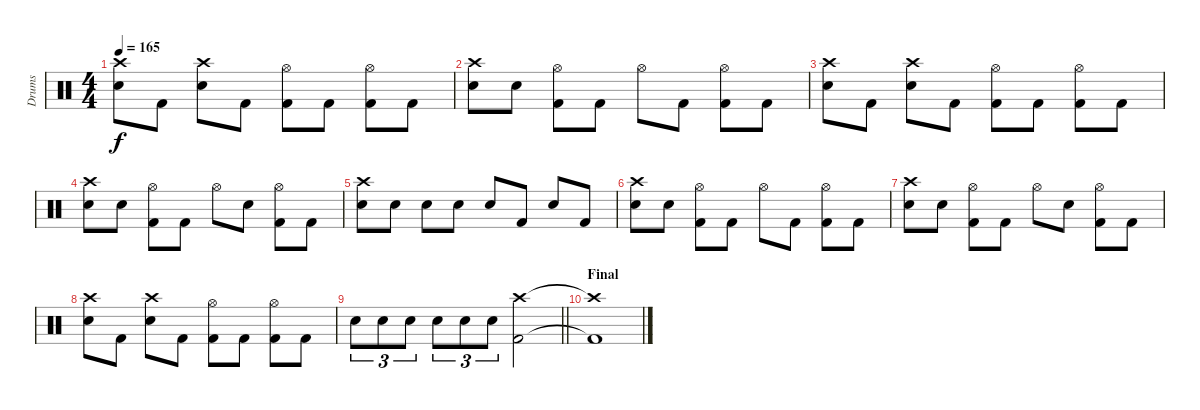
\track ("Drums" "Drums") {instrument percussion}
\staff {score}
\articulation defaults
\ts (4 4)
\tempo 165
\clef neutral
\ks c
("Crash high (hit)" "Electric Snare (hit)").8{dy f} "Kick (hit) 2".8 ("Crash high (hit)" "Electric Snare (hit)").8 "Kick (hit) 2".8 ("Hi-Hat (open)" "Kick (hit) 2").8 "Kick (hit) 2".8 ("Hi-Hat (open)" "Kick (hit) 2").8 "Kick (hit) 2".8 |
("Crash high (hit)" "Electric Snare (hit)").8 "Electric Snare (hit)".8 ("Hi-Hat (open)" "Kick (hit) 2").8 "Kick (hit) 2".8 "Hi-Hat (open)".8 "Kick (hit) 2".8 ("Hi-Hat (open)" "Kick (hit) 2").8 "Kick (hit) 2".8 |
("Crash high (hit)" "Electric Snare (hit)").8 "Kick (hit) 2".8 ("Crash high (hit)" "Electric Snare (hit)").8 "Kick (hit) 2".8 ("Hi-Hat (open)" "Kick (hit) 2").8 "Kick (hit) 2".8 ("Hi-Hat (open)" "Kick (hit) 2").8 "Kick (hit) 2".8 |
("Crash high (hit)" "Electric Snare (hit)").8 "Electric Snare (hit)".8 ("Hi-Hat (open)" "Kick (hit) 2").8 "Kick (hit) 2".8 "Hi-Hat (open)".8 "Electric Snare (hit)".8 ("Hi-Hat (open)" "Kick (hit) 2").8 "Kick (hit) 2".8 |
("Crash high (hit)" "Electric Snare (hit)").8 "Electric Snare (hit)".8 "Electric Snare (hit)".8 "Electric Snare (hit)".8 "Electric Snare (hit)".8 "Kick (hit) 2".8 "Electric Snare (hit)".8 "Kick (hit) 2".8 |
("Crash high (hit)" "Electric Snare (hit)").8 "Electric Snare (hit)".8 ("Hi-Hat (open)" "Kick (hit) 2").8 "Kick (hit) 2".8 "Hi-Hat (open)".8 "Kick (hit) 2".8 ("Hi-Hat (open)" "Kick (hit) 2").8 "Kick (hit) 2".8 |
("Crash high (hit)" "Electric Snare (hit)").8 "Electric Snare (hit)".8 ("Hi-Hat (open)" "Kick (hit) 2").8 "Kick (hit) 2".8 "Hi-Hat (open)".8 "Electric Snare (hit)".8 ("Hi-Hat (open)" "Kick (hit) 2").8 "Kick (hit) 2".8 |
("Crash high (hit)" "Electric Snare (hit)").8 "Kick (hit) 2".8 ("Crash high (hit)" "Electric Snare (hit)").8 "Kick (hit) 2".8 ("Hi-Hat (open)" "Kick (hit) 2").8 "Kick (hit) 2".8 ("Hi-Hat (open)" "Kick (hit) 2").8 "Kick (hit) 2".8 |
\barLineRight lightlight "Electric Snare (hit)".8{tu (3 2)} "Electric Snare (hit)".8{tu (3 2)} "Electric Snare (hit)".8{tu (3 2)} "Electric Snare (hit)".8{tu (3 2)} "Electric Snare (hit)".8{tu (3 2)} "Electric Snare (hit)".8{tu (3 2)}
("Crash high (hit)" "Kick (hit) 2").2 |
\section ("" "Final")
("Crash high (hit)"{t} "Kick (hit) 2"{t}).1
